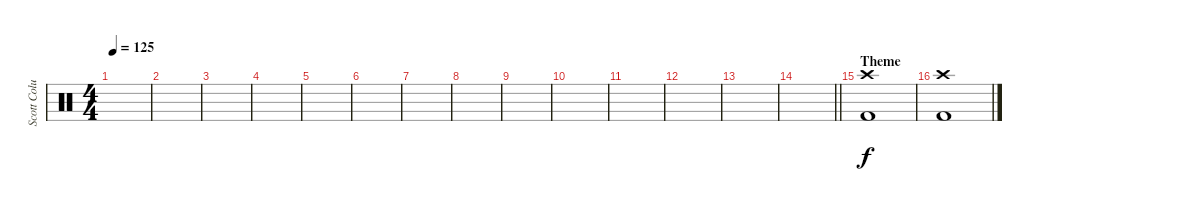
\track ("Scott Columbus" "Scott Colu") {instrument percussion}
\staff {score}
\articulation defaults
\ts (4 4)
\tempo 125
\clef neutral
\ks c
|
|
|
|
|
|
|
|
|
|
|
|
|
\barLineRight lightlight
|
\section ("" "Theme")
("Crash high (hit)" "Kick (hit) 2").1 |
("Crash high (hit)" "Kick (hit) 2").1
